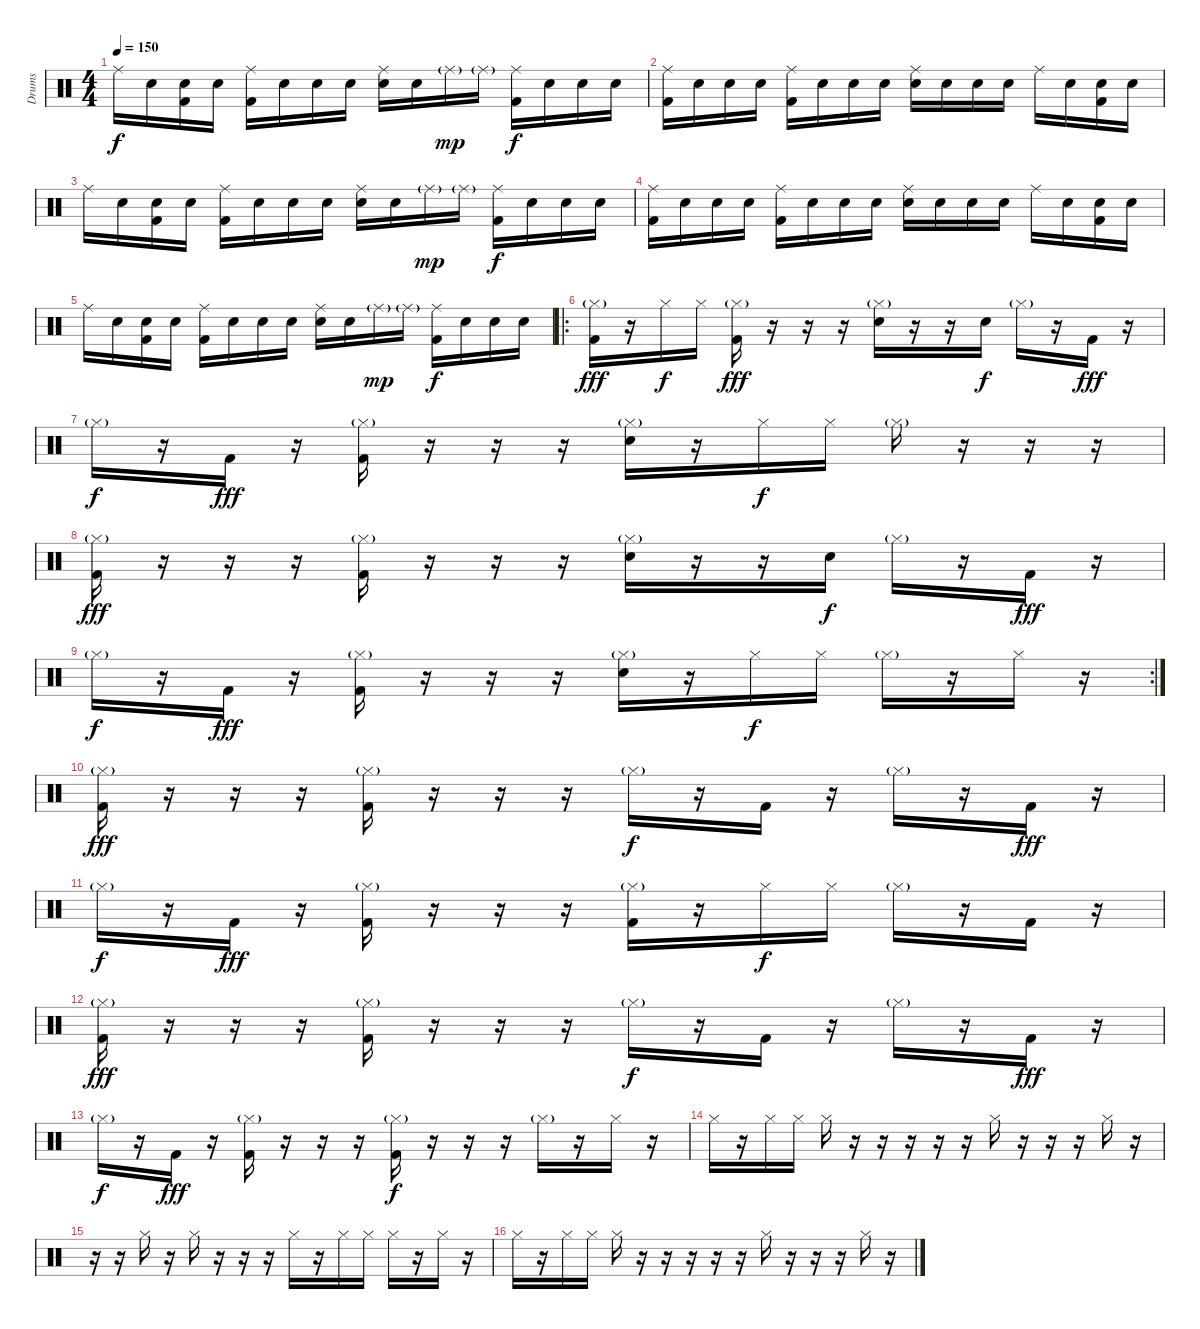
\track ("Drums" "Drums") {instrument percussion}
\staff {score}
\articulation defaults
\ts (4 4)
\tempo 150
\clef neutral
\ks c "Ride (middle)".16{dy f} "Snare (hit)".16
("Snare (hit)" "Kick (hit) 2").16 "Snare (hit)".16 ("Ride (middle)" "Kick (hit) 2").16 "Snare (hit)".16 "Snare (hit)".16 "Snare (hit)".16 ("Ride (middle)" "Electric Snare (hit)").16 "Snare (hit)".16 "Ride (middle)"{g}.16{dy mp} "Ride (middle)"{g}.16 ("Ride (middle)" "Kick (hit) 2").16{dy f} "Snare (hit)".16 "Snare (hit)".16 "Snare (hit)".16 |
("Ride (middle)" "Kick (hit) 2").16 "Snare (hit)".16 "Snare (hit)".16 "Snare (hit)".16 ("Ride (middle)" "Kick (hit) 2").16 "Snare (hit)".16 "Snare (hit)".16 "Snare (hit)".16 ("Ride (middle)" "Electric Snare (hit)").16 "Snare (hit)".16 "Snare (hit)".16 "Snare (hit)".16 "Ride (middle)".16 "Snare (hit)".16 ("Snare (hit)" "Kick (hit) 2").16 "Snare (hit)".16 |
"Ride (middle)".16 "Snare (hit)".16 ("Snare (hit)" "Kick (hit) 2").16 "Snare (hit)".16 ("Ride (middle)" "Kick (hit) 2").16 "Snare (hit)".16 "Snare (hit)".16 "Snare (hit)".16 ("Ride (middle)" "Electric Snare (hit)").16 "Snare (hit)".16 "Ride (middle)"{g}.16{dy mp} "Ride (middle)"{g}.16 ("Ride (middle)" "Kick (hit) 2").16{dy f} "Snare (hit)".16 "Snare (hit)".16 "Snare (hit)".16 |
("Ride (middle)" "Kick (hit) 2").16 "Snare (hit)".16 "Snare (hit)".16 "Snare (hit)".16 ("Ride (middle)" "Kick (hit) 2").16 "Snare (hit)".16 "Snare (hit)".16 "Snare (hit)".16 ("Ride (middle)" "Electric Snare (hit)").16 "Snare (hit)".16 "Snare (hit)".16 "Snare (hit)".16 "Ride (middle)".16 "Snare (hit)".16 ("Snare (hit)" "Kick (hit) 2").16 "Snare (hit)".16 |
"Ride (middle)".16 "Snare (hit)".16 ("Snare (hit)" "Kick (hit) 2").16 "Snare (hit)".16 ("Ride (middle)" "Kick (hit) 2").16 "Snare (hit)".16 "Snare (hit)".16 "Snare (hit)".16 ("Ride (middle)" "Electric Snare (hit)").16 "Snare (hit)".16 "Ride (middle)"{g}.16{dy mp} "Ride (middle)"{g}.16 ("Ride (middle)" "Kick (hit) 2").16{dy f} "Snare (hit)".16 "Snare (hit)".16 "Snare (hit)".16 |
\ro
("Hi-Hat (closed)"{g} "Kick (hit) 2").16{dy fff} r.16 "Hi-Hat (closed)".16{dy f} "Hi-Hat (closed)".16 ("Hi-Hat (closed)"{g} "Kick (hit) 2").16{dy fff} r.16 r.16 r.16 ("Hi-Hat (closed)"{g} "Electric Snare (hit)").16 r.16 r.16 "Electric Snare (hit)".16{dy f} "Hi-Hat (closed)"{g}.16 r.16 "Kick (hit) 2".16{dy fff} r.16 |
"Hi-Hat (closed)"{g}.16{dy f} r.16 "Kick (hit) 2".16{dy fff} r.16 ("Hi-Hat (closed)"{g} "Kick (hit) 2").16 r.16 r.16 r.16 ("Hi-Hat (closed)"{g} "Electric Snare (hit)").16 r.16 "Hi-Hat (closed)".16{dy f} "Hi-Hat (closed)".16 "Hi-Hat (closed)"{g}.16 r.16 r.16 r.16 |
("Hi-Hat (closed)"{g} "Kick (hit) 2").16{dy fff} r.16 r.16 r.16 ("Hi-Hat (closed)"{g} "Kick (hit) 2").16 r.16 r.16 r.16 ("Hi-Hat (closed)"{g} "Electric Snare (hit)").16 r.16 r.16 "Electric Snare (hit)".16{dy f} "Hi-Hat (closed)"{g}.16 r.16 "Kick (hit) 2".16{dy fff} r.16 |
\rc 2 "Hi-Hat (closed)"{g}.16{dy f}
r.16 "Kick (hit) 2".16{dy fff} r.16 ("Hi-Hat (closed)"{g} "Kick (hit) 2").16 r.16 r.16 r.16 ("Hi-Hat (closed)"{g} "Electric Snare (hit)").16 r.16 "Hi-Hat (closed)".16{dy f} "Hi-Hat (closed)".16 "Hi-Hat (closed)"{g}.16 r.16 "Hi-Hat (closed)".16 r.16 |
("Hi-Hat (closed)"{g} "Kick (hit) 2").16{dy fff} r.16 r.16 r.16 ("Hi-Hat (closed)"{g} "Kick (hit) 2").16 r.16 r.16 r.16 "Hi-Hat (closed)"{g}.16{dy f} r.16 "Kick (hit) 2".16 r.16 "Hi-Hat (closed)"{g}.16 r.16 "Kick (hit) 2".16{dy fff} r.16 |
"Hi-Hat (closed)"{g}.16{dy f} r.16 "Kick (hit) 2".16{dy fff} r.16 ("Hi-Hat (closed)"{g} "Kick (hit) 2").16 r.16 r.16 r.16 ("Hi-Hat (closed)"{g} "Kick (hit) 2").16 r.16 "Hi-Hat (closed)".16{dy f} "Hi-Hat (closed)".16 "Hi-Hat (closed)"{g}.16 r.16 "Kick (hit) 2".16 r.16 |
("Hi-Hat (closed)"{g} "Kick (hit) 2").16{dy fff} r.16 r.16 r.16 ("Hi-Hat (closed)"{g} "Kick (hit) 2").16 r.16 r.16 r.16 "Hi-Hat (closed)"{g}.16{dy f} r.16 "Kick (hit) 2".16 r.16 "Hi-Hat (closed)"{g}.16 r.16 "Kick (hit) 2".16{dy fff} r.16 |
"Hi-Hat (closed)"{g}.16{dy f} r.16 "Kick (hit) 2".16{dy fff} r.16 ("Hi-Hat (closed)"{g} "Kick (hit) 2").16 r.16 r.16 r.16 ("Hi-Hat (closed)"{g} "Kick (hit) 2").16{dy f} r.16 r.16 r.16 "Hi-Hat (closed)"{g}.16 r.16 "Hi-Hat (closed)".16 r.16 |
"Hi-Hat (closed)".16 r.16 "Hi-Hat (closed)".16 "Hi-Hat (closed)".16 "Hi-Hat (closed)".16 r.16 r.16 r.16 r.16 r.16 "Hi-Hat (closed)".16 r.16 r.16 r.16 "Hi-Hat (closed)".16 r.16 |
r.16 r.16 "Hi-Hat (closed)".16 r.16 "Hi-Hat (closed)".16 r.16 r.16 r.16 "Hi-Hat (closed)".16 r.16 "Hi-Hat (closed)".16 "Hi-Hat (closed)".16 "Hi-Hat (closed)".16 r.16 "Hi-Hat (closed)".16 r.16 |
"Hi-Hat (closed)".16 r.16 "Hi-Hat (closed)".16 "Hi-Hat (closed)".16 "Hi-Hat (closed)".16 r.16 r.16 r.16 r.16 r.16 "Hi-Hat (closed)".16 r.16 r.16 r.16 "Hi-Hat (closed)".16 r.16
